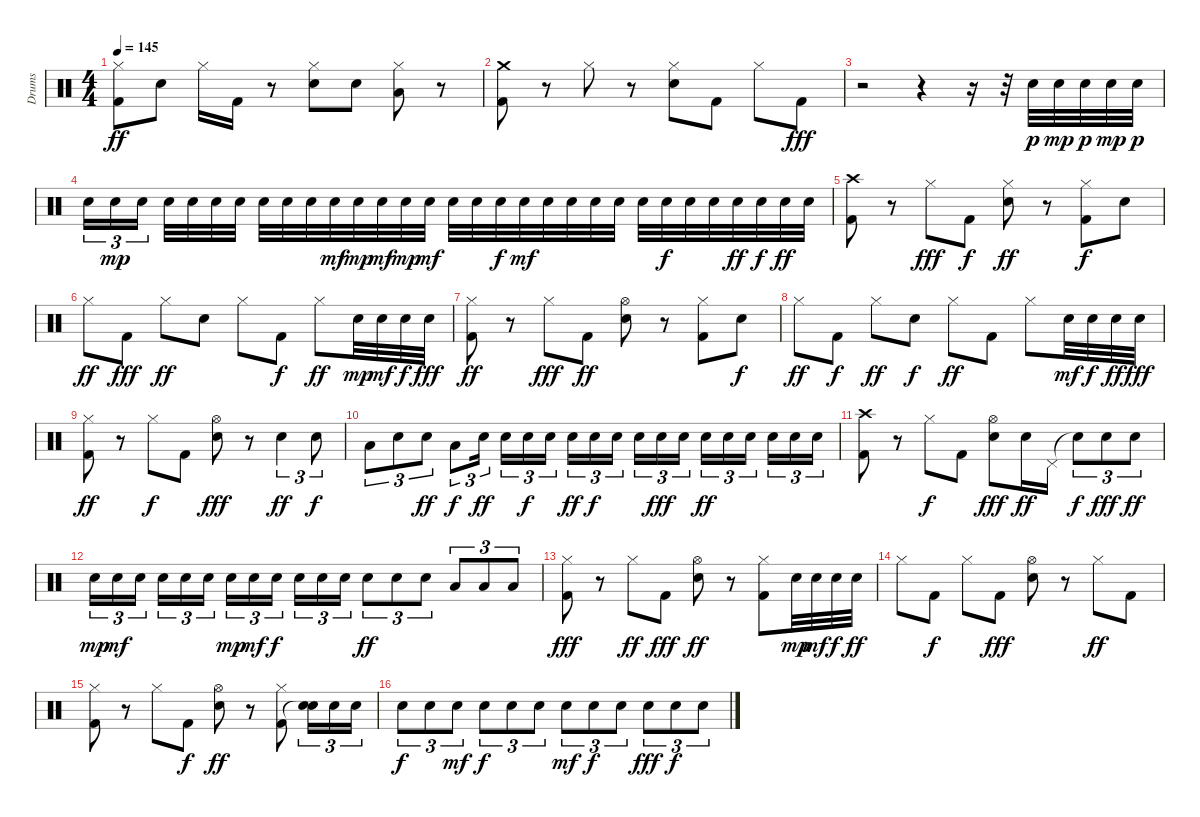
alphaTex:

\track ("Drums" "Drums") {instrument percussion}
\staff {score}
\articulation defaults
\ts (4 4)
\tempo 145
\clef neutral
\ks c
("Hi-Hat (closed)" "Kick (hit) 2").8{dy ff} "Snare (hit) 2".8 "Hi-Hat (closed)".16 "Kick (hit) 2".16 r.8 ("Hi-Hat (closed)" "Snare (hit) 2").8 "Snare (hit) 2".8 ("Hi-Hat (closed)" "Low Tom (hit)").8 r.8 |
("Crash medium (hit)" "Kick (hit) 2").8 r.8 "Hi-Hat (closed)".8 r.8 ("Hi-Hat (closed)" "Snare (hit) 2").8 "Kick (hit) 2".8 "Hi-Hat (closed)".8 "Kick (hit) 2".8{dy fff} |
r.2 r.4 r.16 r.32 "Snare (hit) 2".32{dy p} "Snare (hit) 2".32{dy mp} "Snare (hit) 2".32{dy p} "Snare (hit) 2".32{dy mp} "Snare (hit) 2".32{dy p} |
"Snare (hit) 2".16{tu (3 2)} "Snare (hit) 2".16{tu (3 2) dy mp} "Snare (hit) 2".16{tu (3 2)} "Snare (hit) 2".32 "Snare (hit) 2".32 "Snare (hit) 2".32 "Snare (hit) 2".32 "Snare (hit) 2".32 "Snare (hit) 2".32 "Snare (hit) 2".32 "Snare (hit) 2".32{dy mf} "Snare (hit) 2".32{dy mp} "Snare (hit) 2".32{dy mf} "Snare (hit) 2".32{dy mp} "Snare (hit) 2".32{dy mf} "Snare (hit) 2".32 "Snare (hit) 2".32 "Snare (hit) 2".32{dy f} "Snare (hit) 2".32{dy mf} "Snare (hit) 2".32 "Snare (hit) 2".32 "Snare (hit) 2".32 "Snare (hit) 2".32 "Snare (hit) 2".32 "Snare (hit) 2".32{dy f} "Snare (hit) 2".32 "Snare (hit) 2".32 "Snare (hit) 2".32{dy ff} "Snare (hit) 2".32{dy f} "Snare (hit) 2".32{dy ff} "Snare (hit) 2".32 |
("Crash high (hit)" "Kick (hit) 2").8 r.8 "Hi-Hat (closed)".8{dy fff} "Kick (hit) 2".8{dy f} ("Hi-Hat (closed)" "Snare (hit) 2").8{dy ff} r.8 ("Hi-Hat (closed)" "Kick (hit) 2").8{dy f} "Snare (hit) 2".8 |
"Hi-Hat (closed)".8{dy ff} "Kick (hit) 2".8{dy fff} "Hi-Hat (closed)".8{dy ff} "Snare (hit) 2".8 "Hi-Hat (closed)".8 "Kick (hit) 2".8{dy f} "Hi-Hat (closed)".8{dy ff} "Snare (hit) 2".32{dy mp} "Snare (hit) 2".32{dy mf} "Snare (hit) 2".32{dy f} "Snare (hit) 2".32{dy fff} |
("Hi-Hat (closed)" "Kick (hit) 2").8{dy ff} r.8 "Hi-Hat (closed)".8{dy fff} "Kick (hit) 2".8{dy ff} ("Hi-Hat (open)" "Snare (hit) 2").8 r.8 ("Hi-Hat (closed)" "Kick (hit) 2").8 "Snare (hit) 2".8{dy f} |
"Hi-Hat (closed)".8{dy ff} "Kick (hit) 2".8{dy f} "Hi-Hat (closed)".8{dy ff} "Snare (hit) 2".8{dy f} "Hi-Hat (closed)".8{dy ff} "Kick (hit) 2".8 "Hi-Hat (closed)".8 "Snare (hit) 2".32{dy mf} "Snare (hit) 2".32{dy f} "Snare (hit) 2".32{dy ff} "Snare (hit) 2".32{dy fff} |
("Hi-Hat (closed)" "Kick (hit) 2").8{dy ff} r.8 "Hi-Hat (closed)".8{dy f} "Kick (hit) 2".8 ("Hi-Hat (open)" "Snare (hit) 2").8{dy fff} r.8 "Snare (hit) 2".4{tu (3 2) dy ff} "Snare (hit) 2".8{tu (3 2) dy f} |
"Low Floor Tom (hit)".8{tu (3 2)} "Snare (hit) 2".8{tu (3 2)} "Snare (hit) 2".8{tu (3 2) dy ff} "Low Tom (hit)".8{tu (3 2) dy f} "Snare (hit) 2".16{tu (3 2) dy ff} "Snare (hit) 2".16{tu (3 2)} "Snare (hit) 2".16{tu (3 2) dy f} "Snare (hit) 2".16{tu (3 2)} "Snare (hit) 2".16{tu (3 2) dy ff} "Snare (hit) 2".16{tu (3 2) dy f} "Snare (hit) 2".16{tu (3 2)} "Snare (hit) 2".16{tu (3 2)} "Snare (hit) 2".16{tu (3 2) dy fff} "Snare (hit) 2".16{tu (3 2)} "Snare (hit) 2".16{tu (3 2) dy ff} "Snare (hit) 2".16{tu (3 2)} "Snare (hit) 2".16{tu (3 2)} "Snare (hit) 2".16{tu (3 2)} "Snare (hit) 2".16{tu (3 2)} "Snare (hit) 2".16{tu (3 2)} |
("Crash high (hit)" "Kick (hit) 2").8 r.8 "Hi-Hat (closed)".8{dy f} "Kick (hit) 2".8 ("Hi-Hat (open)" "Snare (hit) 2").8{dy fff} "Snare (hit) 2".16{dy ff} "Pedal Hi-Hat (hit)".16 "Snare (hit)"{t}.8{tu (3 2) dy f} "Snare (hit) 2".8{tu (3 2) dy fff} "Snare (hit) 2".8{tu (3 2) dy ff} |
"Snare (hit) 2".16{tu (3 2) dy mp} "Snare (hit) 2".16{tu (3 2) dy mf} "Snare (hit) 2".16{tu (3 2)} "Snare (hit) 2".16{tu (3 2)} "Snare (hit) 2".16{tu (3 2)} "Snare (hit) 2".16{tu (3 2)} "Snare (hit) 2".16{tu (3 2) dy mp} "Snare (hit) 2".16{tu (3 2) dy mf} "Snare (hit) 2".16{tu (3 2) dy f} "Snare (hit) 2".16{tu (3 2)} "Snare (hit) 2".16{tu (3 2)} "Snare (hit) 2".16{tu (3 2)} "Snare (hit) 2".8{tu (3 2) dy ff} "Snare (hit) 2".8{tu (3 2)} "Snare (hit) 2".8{tu (3 2)} "Low Tom (hit)".8{tu (3 2)} "Low Tom (hit)".8{tu (3 2)} "Low Tom (hit)".8{tu (3 2)} |
("Hi-Hat (closed)" "Kick (hit) 2").8{dy fff} r.8 "Hi-Hat (closed)".8{dy ff} "Kick (hit) 2".8{dy fff} ("Hi-Hat (open)" "Snare (hit) 2").8{dy ff} r.8 ("Hi-Hat (closed)" "Kick (hit) 2").8 "Snare (hit) 2".32{dy mp} "Snare (hit) 2".32{dy mf} "Snare (hit) 2".32{dy f} "Snare (hit) 2".32{dy ff} |
"Hi-Hat (closed)".8 "Kick (hit) 2".8{dy f} "Hi-Hat (closed)".8 "Kick (hit) 2".8{dy fff} ("Hi-Hat (open)" "Snare (hit) 2").8 r.8 "Hi-Hat (closed)".8{dy ff} "Kick (hit) 2".8 |
("Hi-Hat (closed)" "Kick (hit) 2").8 r.8 "Hi-Hat (closed)".8 "Kick (hit) 2".8{dy f} ("Hi-Hat (open)" "Snare (hit) 2").8{dy ff} r.8 ("Hi-Hat (closed)" "Kick (hit) 2").8 ("Snare (hit) 2" "Snare (hit)"{t}).16{tu (3 2)} "Snare (hit) 2".16{tu (3 2)} "Snare (hit) 2".16{tu (3 2)} |
"Snare (hit) 2".8{tu (3 2) dy f} "Snare (hit) 2".8{tu (3 2)} "Snare (hit) 2".8{tu (3 2) dy mf} "Snare (hit) 2".8{tu (3 2) dy f} "Snare (hit) 2".8{tu (3 2)} "Snare (hit) 2".8{tu (3 2)} "Snare (hit) 2".8{tu (3 2) dy mf} "Snare (hit) 2".8{tu (3 2) dy f} "Snare (hit) 2".8{tu (3 2)} "Snare (hit) 2".8{tu (3 2) dy fff} "Snare (hit) 2".8{tu (3 2) dy f} "Snare (hit) 2".8{tu (3 2)}
